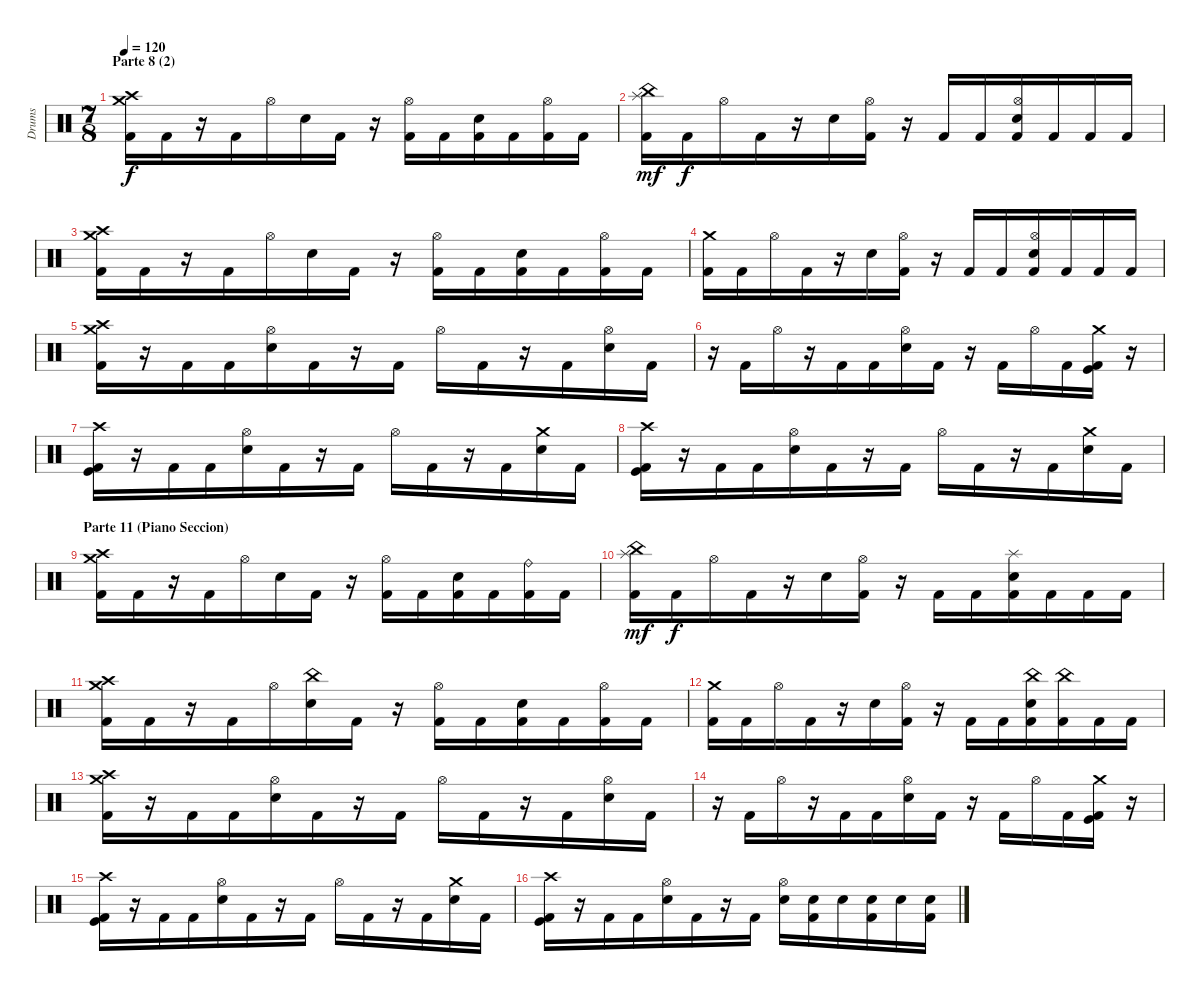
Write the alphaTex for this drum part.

\track ("Drums" "Drums") {instrument percussion}
\staff {score}
\articulation defaults
\ts (7 8)
\section ("" "Parte 8 (2)")
\tempo 120
\clef neutral
\ks c
("Crash medium (hit)" "Crash high (hit)" "Kick (hit) 2").16{dy f} "Kick (hit) 2".16 r.16 "Kick (hit) 2".16 "Hi-Hat (open)".16 "Electric Snare (hit)".16 "Kick (hit) 2".16 r.16 ("Hi-Hat (open)" "Kick (hit) 2").16 "Kick (hit) 2".16 ("Electric Snare (hit)" "Kick (hit) 2").16 "Kick (hit) 2".16 ("Hi-Hat (open)" "Kick (hit) 2").16 "Kick (hit) 2".16 |
("China (hit)" "Splash (hit)" "Kick (hit) 2").16{dy mf} "Kick (hit) 2".16{dy f} "Hi-Hat (open)".16 "Kick (hit) 2".16 r.16 "Electric Snare (hit)".16 ("Hi-Hat (open)" "Kick (hit) 2").16 r.16 "Kick (hit) 2".16 "Kick (hit) 2".16 ("Hi-Hat (open)" "Electric Snare (hit)" "Kick (hit) 2").16 "Kick (hit) 2".16 "Kick (hit) 2".16 "Kick (hit) 2".16 |
("Crash medium (hit)" "Crash high (hit)" "Kick (hit) 2").16 "Kick (hit) 2".16 r.16 "Kick (hit) 2".16 "Hi-Hat (open)".16 "Electric Snare (hit)".16 "Kick (hit) 2".16 r.16 ("Hi-Hat (open)" "Kick (hit) 2").16 "Kick (hit) 2".16 ("Electric Snare (hit)" "Kick (hit) 2").16 "Kick (hit) 2".16 ("Hi-Hat (open)" "Kick (hit) 2").16 "Kick (hit) 2".16 |
("Crash medium (hit)" "Kick (hit) 2").16 "Kick (hit) 2".16 "Hi-Hat (open)".16 "Kick (hit) 2".16 r.16 "Electric Snare (hit)".16 ("Hi-Hat (open)" "Kick (hit) 2").16 r.16 "Kick (hit) 2".16 "Kick (hit) 2".16 ("Hi-Hat (open)" "Electric Snare (hit)" "Kick (hit) 2").16 "Kick (hit) 2".16 "Kick (hit) 2".16 "Kick (hit) 2".16 |
("Crash medium (hit)" "Crash high (hit)" "Kick (hit) 2").16 r.16 "Kick (hit) 2".16 "Kick (hit) 2".16 ("Hi-Hat (open)" "Electric Snare (hit)").16 "Kick (hit) 2".16 r.16 "Kick (hit) 2".16 "Hi-Hat (open)".16 "Kick (hit) 2".16 r.16 "Kick (hit) 2".16 ("Hi-Hat (open)" "Electric Snare (hit)").16 "Kick (hit) 2".16 |
r.16 "Kick (hit) 2".16 "Hi-Hat (open)".16 r.16 "Kick (hit) 2".16 "Kick (hit) 2".16 ("Hi-Hat (open)" "Electric Snare (hit)").16 "Kick (hit) 2".16 r.16 "Kick (hit) 2".16 "Hi-Hat (open)".16 "Kick (hit) 2".16 ("Crash medium (hit)" "Kick (hit) 2" "Kick (hit)").16 r.16 |
("Crash high (hit)" "Kick (hit) 2" "Kick (hit)").16 r.16 "Kick (hit) 2".16 "Kick (hit) 2".16 ("Hi-Hat (open)" "Electric Snare (hit)").16 "Kick (hit) 2".16 r.16 "Kick (hit) 2".16 "Hi-Hat (open)".16 "Kick (hit) 2".16 r.16 "Kick (hit) 2".16 ("Crash medium (hit)" "Electric Snare (hit)").16 "Kick (hit) 2".16 |
("Crash high (hit)" "Kick (hit) 2" "Kick (hit)").16 r.16 "Kick (hit) 2".16 "Kick (hit) 2".16 ("Hi-Hat (open)" "Electric Snare (hit)").16 "Kick (hit) 2".16 r.16 "Kick (hit) 2".16 "Hi-Hat (open)".16 "Kick (hit) 2".16 r.16 "Kick (hit) 2".16 ("Crash medium (hit)" "Electric Snare (hit)").16 "Kick (hit) 2".16 |
\section ("" "Parte 11 (Piano Seccion)")
("Crash medium (hit)" "Crash high (hit)" "Kick (hit) 2").16 "Kick (hit) 2".16 r.16 "Kick (hit) 2".16 "Hi-Hat (open)".16 "Electric Snare (hit)".16 "Kick (hit) 2".16 r.16 ("Hi-Hat (open)" "Kick (hit) 2").16 "Kick (hit) 2".16 ("Electric Snare (hit)" "Kick (hit) 2").16 "Kick (hit) 2".16 ("Ride (bell)" "Kick (hit) 2").16 "Kick (hit) 2".16 |
("China (hit)" "Splash (hit)" "Kick (hit) 2").16{dy mf} "Kick (hit) 2".16{dy f} "Hi-Hat (open)".16 "Kick (hit) 2".16 r.16 "Electric Snare (hit)".16 ("Hi-Hat (open)" "Kick (hit) 2").16 r.16 "Kick (hit) 2".16 "Kick (hit) 2".16 ("Splash (hit)" "Electric Snare (hit)" "Kick (hit) 2").16 "Kick (hit) 2".16 "Kick (hit) 2".16 "Kick (hit) 2".16 |
("Crash medium (hit)" "Crash high (hit)" "Kick (hit) 2").16 "Kick (hit) 2".16 r.16 "Kick (hit) 2".16 "Hi-Hat (open)".16 ("China (hit)" "Electric Snare (hit)").16 "Kick (hit) 2".16 r.16 ("Hi-Hat (open)" "Kick (hit) 2").16 "Kick (hit) 2".16 ("Electric Snare (hit)" "Kick (hit) 2").16 "Kick (hit) 2".16 ("Hi-Hat (open)" "Kick (hit) 2").16 "Kick (hit) 2".16 |
("Crash medium (hit)" "Kick (hit) 2").16 "Kick (hit) 2".16 "Hi-Hat (open)".16 "Kick (hit) 2".16 r.16 "Electric Snare (hit)".16 ("Hi-Hat (open)" "Kick (hit) 2").16 r.16 "Kick (hit) 2".16 "Kick (hit) 2".16 ("China (hit)" "Electric Snare (hit)" "Kick (hit) 2").16 ("China (hit)" "Kick (hit) 2").16 "Kick (hit) 2".16 "Kick (hit) 2".16 |
("Crash medium (hit)" "Crash high (hit)" "Kick (hit) 2").16 r.16 "Kick (hit) 2".16 "Kick (hit) 2".16 ("Hi-Hat (open)" "Electric Snare (hit)").16 "Kick (hit) 2".16 r.16 "Kick (hit) 2".16 "Hi-Hat (open)".16 "Kick (hit) 2".16 r.16 "Kick (hit) 2".16 ("Hi-Hat (open)" "Electric Snare (hit)").16 "Kick (hit) 2".16 |
r.16 "Kick (hit) 2".16 "Hi-Hat (open)".16 r.16 "Kick (hit) 2".16 "Kick (hit) 2".16 ("Hi-Hat (open)" "Electric Snare (hit)").16 "Kick (hit) 2".16 r.16 "Kick (hit) 2".16 "Hi-Hat (open)".16 "Kick (hit) 2".16 ("Crash medium (hit)" "Kick (hit) 2" "Kick (hit)").16 r.16 |
("Crash high (hit)" "Kick (hit) 2" "Kick (hit)").16 r.16 "Kick (hit) 2".16 "Kick (hit) 2".16 ("Hi-Hat (open)" "Electric Snare (hit)").16 "Kick (hit) 2".16 r.16 "Kick (hit) 2".16 "Hi-Hat (open)".16 "Kick (hit) 2".16 r.16 "Kick (hit) 2".16 ("Crash medium (hit)" "Electric Snare (hit)").16 "Kick (hit) 2".16 |
("Crash high (hit)" "Kick (hit) 2" "Kick (hit)").16 r.16 "Kick (hit) 2".16 "Kick (hit) 2".16 ("Hi-Hat (open)" "Electric Snare (hit)").16 "Kick (hit) 2".16 r.16 "Kick (hit) 2".16 ("Hi-Hat (open)" "Electric Snare (hit)").16 ("Electric Snare (hit)" "Kick (hit) 2").16 "Electric Snare (hit)".16 ("Electric Snare (hit)" "Kick (hit) 2").16 "Electric Snare (hit)".16 ("Electric Snare (hit)" "Kick (hit) 2").16
